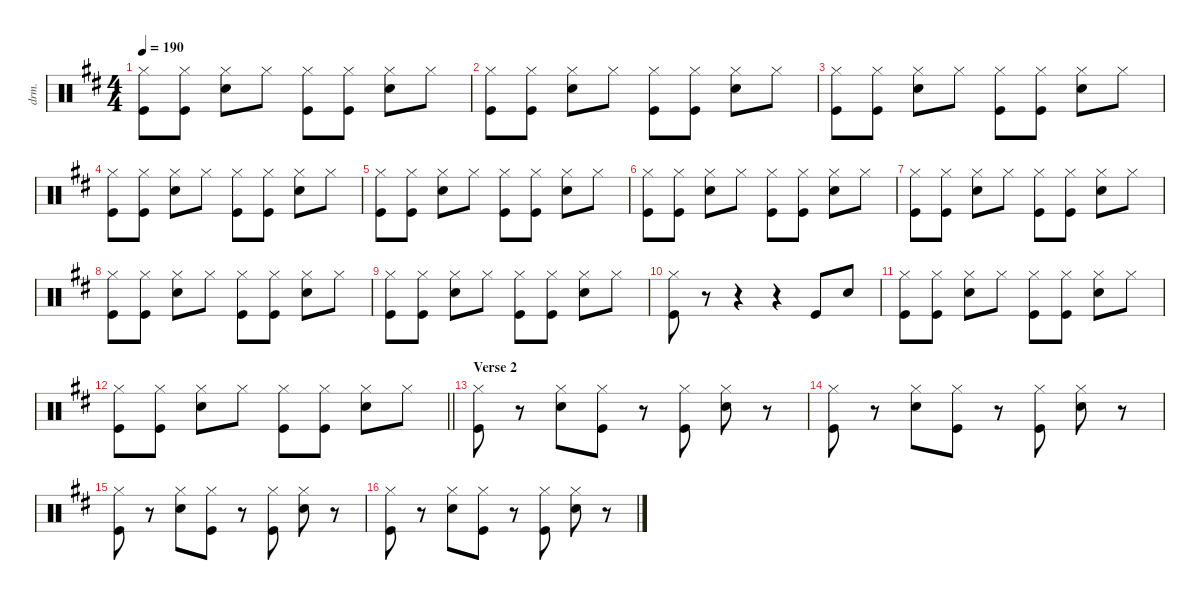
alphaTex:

\defaultSystemsLayout 4
\hideDynamics
\bracketExtendMode nobrackets
\otherSystemsTrackNameOrientation horizontal
\track ("Damon Wilson" "drm.") {instrument percussion}
\staff {score}
\articulation defaults
\ts (4 4)
\tempo 190
\clef neutral
\ks d
("Hi-Hat (closed)"{acc forcenatural} "Kick (hit)"{acc forcenatural}).8{dy f beam Down} ("Hi-Hat (closed)"{acc forcenatural} "Kick (hit)"{acc forcenatural}).8{beam Down} ("Hi-Hat (closed)"{acc forcenatural} "Snare (hit) 2"{acc forcenatural}).8{beam Down} "Hi-Hat (closed)"{acc forcenatural}.8{beam Down} ("Hi-Hat (closed)"{acc forcenatural} "Kick (hit)"{acc forcenatural}).8{beam Down} ("Hi-Hat (closed)"{acc forcenatural} "Kick (hit)"{acc forcenatural}).8{beam Down} ("Hi-Hat (closed)"{acc forcenatural} "Snare (hit) 2"{acc forcenatural}).8{beam Down} "Hi-Hat (closed)"{acc forcenatural}.8{beam Down} |
("Hi-Hat (closed)"{acc forcenatural} "Kick (hit)"{acc forcenatural}).8{beam Down} ("Hi-Hat (closed)"{acc forcenatural} "Kick (hit)"{acc forcenatural}).8{beam Down} ("Hi-Hat (closed)"{acc forcenatural} "Snare (hit) 2"{acc forcenatural}).8{beam Down} "Hi-Hat (closed)"{acc forcenatural}.8{beam Down} ("Hi-Hat (closed)"{acc forcenatural} "Kick (hit)"{acc forcenatural}).8{beam Down} ("Hi-Hat (closed)"{acc forcenatural} "Kick (hit)"{acc forcenatural}).8{beam Down} ("Hi-Hat (closed)"{acc forcenatural} "Snare (hit) 2"{acc forcenatural}).8{beam Down} "Hi-Hat (closed)"{acc forcenatural}.8{beam Down} |
("Hi-Hat (closed)"{acc forcenatural} "Kick (hit)"{acc forcenatural}).8{beam Down} ("Hi-Hat (closed)"{acc forcenatural} "Kick (hit)"{acc forcenatural}).8{beam Down} ("Hi-Hat (closed)"{acc forcenatural} "Snare (hit) 2"{acc forcenatural}).8{beam Down} "Hi-Hat (closed)"{acc forcenatural}.8{beam Down} ("Hi-Hat (closed)"{acc forcenatural} "Kick (hit)"{acc forcenatural}).8{beam Down} ("Hi-Hat (closed)"{acc forcenatural} "Kick (hit)"{acc forcenatural}).8{beam Down} ("Hi-Hat (closed)"{acc forcenatural} "Snare (hit) 2"{acc forcenatural}).8{beam Down} "Hi-Hat (closed)"{acc forcenatural}.8{beam Down} |
("Hi-Hat (closed)"{acc forcenatural} "Kick (hit)"{acc forcenatural}).8{beam Down} ("Hi-Hat (closed)"{acc forcenatural} "Kick (hit)"{acc forcenatural}).8{beam Down} ("Hi-Hat (closed)"{acc forcenatural} "Snare (hit) 2"{acc forcenatural}).8{beam Down} "Hi-Hat (closed)"{acc forcenatural}.8{beam Down} ("Hi-Hat (closed)"{acc forcenatural} "Kick (hit)"{acc forcenatural}).8{beam Down} ("Hi-Hat (closed)"{acc forcenatural} "Kick (hit)"{acc forcenatural}).8{beam Down} ("Hi-Hat (closed)"{acc forcenatural} "Snare (hit) 2"{acc forcenatural}).8{beam Down} "Hi-Hat (closed)"{acc forcenatural}.8{beam Down} |
("Hi-Hat (closed)"{acc forcenatural} "Kick (hit)"{acc forcenatural}).8{beam Down} ("Hi-Hat (closed)"{acc forcenatural} "Kick (hit)"{acc forcenatural}).8{beam Down} ("Hi-Hat (closed)"{acc forcenatural} "Snare (hit) 2"{acc forcenatural}).8{beam Down} "Hi-Hat (closed)"{acc forcenatural}.8{beam Down} ("Hi-Hat (closed)"{acc forcenatural} "Kick (hit)"{acc forcenatural}).8{beam Down} ("Hi-Hat (closed)"{acc forcenatural} "Kick (hit)"{acc forcenatural}).8{beam Down} ("Hi-Hat (closed)"{acc forcenatural} "Snare (hit) 2"{acc forcenatural}).8{beam Down} "Hi-Hat (closed)"{acc forcenatural}.8{beam Down} |
("Hi-Hat (closed)"{acc forcenatural} "Kick (hit)"{acc forcenatural}).8{beam Down} ("Hi-Hat (closed)"{acc forcenatural} "Kick (hit)"{acc forcenatural}).8{beam Down} ("Hi-Hat (closed)"{acc forcenatural} "Snare (hit) 2"{acc forcenatural}).8{beam Down} "Hi-Hat (closed)"{acc forcenatural}.8{beam Down} ("Hi-Hat (closed)"{acc forcenatural} "Kick (hit)"{acc forcenatural}).8{beam Down} ("Hi-Hat (closed)"{acc forcenatural} "Kick (hit)"{acc forcenatural}).8{beam Down} ("Hi-Hat (closed)"{acc forcenatural} "Snare (hit) 2"{acc forcenatural}).8{beam Down} "Hi-Hat (closed)"{acc forcenatural}.8{beam Down} |
("Hi-Hat (closed)"{acc forcenatural} "Kick (hit)"{acc forcenatural}).8{beam Down} ("Hi-Hat (closed)"{acc forcenatural} "Kick (hit)"{acc forcenatural}).8{beam Down} ("Hi-Hat (closed)"{acc forcenatural} "Snare (hit) 2"{acc forcenatural}).8{beam Down} "Hi-Hat (closed)"{acc forcenatural}.8{beam Down} ("Hi-Hat (closed)"{acc forcenatural} "Kick (hit)"{acc forcenatural}).8{beam Down} ("Hi-Hat (closed)"{acc forcenatural} "Kick (hit)"{acc forcenatural}).8{beam Down} ("Hi-Hat (closed)"{acc forcenatural} "Snare (hit) 2"{acc forcenatural}).8{beam Down} "Hi-Hat (closed)"{acc forcenatural}.8{beam Down} |
("Hi-Hat (closed)"{acc forcenatural} "Kick (hit)"{acc forcenatural}).8{beam Down} ("Hi-Hat (closed)"{acc forcenatural} "Kick (hit)"{acc forcenatural}).8{beam Down} ("Hi-Hat (closed)"{acc forcenatural} "Snare (hit) 2"{acc forcenatural}).8{beam Down} "Hi-Hat (closed)"{acc forcenatural}.8{beam Down} ("Hi-Hat (closed)"{acc forcenatural} "Kick (hit)"{acc forcenatural}).8{beam Down} ("Hi-Hat (closed)"{acc forcenatural} "Kick (hit)"{acc forcenatural}).8{beam Down} ("Hi-Hat (closed)"{acc forcenatural} "Snare (hit) 2"{acc forcenatural}).8{beam Down} "Hi-Hat (closed)"{acc forcenatural}.8{beam Down} |
("Hi-Hat (closed)"{acc forcenatural} "Kick (hit)"{acc forcenatural}).8{beam Down} ("Hi-Hat (closed)"{acc forcenatural} "Kick (hit)"{acc forcenatural}).8{beam Down} ("Hi-Hat (closed)"{acc forcenatural} "Snare (hit) 2"{acc forcenatural}).8{beam Down} "Hi-Hat (closed)"{acc forcenatural}.8{beam Down} ("Hi-Hat (closed)"{acc forcenatural} "Kick (hit)"{acc forcenatural}).8{beam Down} ("Hi-Hat (closed)"{acc forcenatural} "Kick (hit)"{acc forcenatural}).8{beam Down} ("Hi-Hat (closed)"{acc forcenatural} "Snare (hit) 2"{acc forcenatural}).8{beam Down} "Hi-Hat (closed)"{acc forcenatural}.8{beam Down} |
("Hi-Hat (closed)"{acc forcenatural} "Kick (hit)"{acc forcenatural}).8{beam Down} r.8{beam Down} r.4{beam Down} r.4{beam Down} "Kick (hit)"{acc forcenatural}.8{beam Up} "Snare (hit) 2"{acc forcenatural}.8{beam Up} |
("Hi-Hat (closed)"{acc forcenatural} "Kick (hit)"{acc forcenatural}).8{beam Down} ("Hi-Hat (closed)"{acc forcenatural} "Kick (hit)"{acc forcenatural}).8{beam Down} ("Hi-Hat (closed)"{acc forcenatural} "Snare (hit) 2"{acc forcenatural}).8{beam Down} "Hi-Hat (closed)"{acc forcenatural}.8{beam Down} ("Hi-Hat (closed)"{acc forcenatural} "Kick (hit)"{acc forcenatural}).8{beam Down} ("Hi-Hat (closed)"{acc forcenatural} "Kick (hit)"{acc forcenatural}).8{beam Down} ("Hi-Hat (closed)"{acc forcenatural} "Snare (hit) 2"{acc forcenatural}).8{beam Down} "Hi-Hat (closed)"{acc forcenatural}.8{beam Down} |
\barLineRight lightlight
("Hi-Hat (closed)"{acc forcenatural} "Kick (hit)"{acc forcenatural}).8{beam Down} ("Hi-Hat (closed)"{acc forcenatural} "Kick (hit)"{acc forcenatural}).8{beam Down} ("Hi-Hat (closed)"{acc forcenatural} "Snare (hit) 2"{acc forcenatural}).8{beam Down} "Hi-Hat (closed)"{acc forcenatural}.8{beam Down} ("Hi-Hat (closed)"{acc forcenatural} "Kick (hit)"{acc forcenatural}).8{beam Down} ("Hi-Hat (closed)"{acc forcenatural} "Kick (hit)"{acc forcenatural}).8{beam Down} ("Hi-Hat (closed)"{acc forcenatural} "Snare (hit) 2"{acc forcenatural}).8{beam Down} "Hi-Hat (closed)"{acc forcenatural}.8{beam Down} |
\section ("" "Verse 2")
("Hi-Hat (closed)"{acc forcenatural} "Kick (hit)"{acc forcenatural}).8{beam Down} r.8{beam Down} ("Hi-Hat (closed)"{acc forcenatural} "Snare (hit) 2"{acc forcenatural}).8{beam Down} ("Hi-Hat (closed)"{acc forcenatural} "Kick (hit)"{acc forcenatural}).8{beam Down} r.8{beam Down} ("Hi-Hat (closed)"{acc forcenatural} "Kick (hit)"{acc forcenatural}).8{beam Down} ("Hi-Hat (closed)"{acc forcenatural} "Snare (hit) 2"{acc forcenatural}).8{beam Down} r.8{beam Down} |
("Hi-Hat (closed)"{acc forcenatural} "Kick (hit)"{acc forcenatural}).8{beam Down} r.8{beam Down} ("Hi-Hat (closed)"{acc forcenatural} "Snare (hit) 2"{acc forcenatural}).8{beam Down} ("Hi-Hat (closed)"{acc forcenatural} "Kick (hit)"{acc forcenatural}).8{beam Down} r.8{beam Down} ("Hi-Hat (closed)"{acc forcenatural} "Kick (hit)"{acc forcenatural}).8{beam Down} ("Hi-Hat (closed)"{acc forcenatural} "Snare (hit) 2"{acc forcenatural}).8{beam Down} r.8{beam Down} |
("Hi-Hat (closed)"{acc forcenatural} "Kick (hit)"{acc forcenatural}).8{beam Down} r.8{beam Down} ("Hi-Hat (closed)"{acc forcenatural} "Snare (hit) 2"{acc forcenatural}).8{beam Down} ("Hi-Hat (closed)"{acc forcenatural} "Kick (hit)"{acc forcenatural}).8{beam Down} r.8{beam Down} ("Hi-Hat (closed)"{acc forcenatural} "Kick (hit)"{acc forcenatural}).8{beam Down} ("Hi-Hat (closed)"{acc forcenatural} "Snare (hit) 2"{acc forcenatural}).8{beam Down} r.8{beam Down} |
("Hi-Hat (closed)"{acc forcenatural} "Kick (hit)"{acc forcenatural}).8{beam Down} r.8{beam Down} ("Hi-Hat (closed)"{acc forcenatural} "Snare (hit) 2"{acc forcenatural}).8{beam Down} ("Hi-Hat (closed)"{acc forcenatural} "Kick (hit)"{acc forcenatural}).8{beam Down} r.8{beam Down} ("Hi-Hat (closed)"{acc forcenatural} "Kick (hit)"{acc forcenatural}).8{beam Down} ("Hi-Hat (closed)"{acc forcenatural} "Snare (hit) 2"{acc forcenatural}).8{beam Down} r.8{beam Down}
